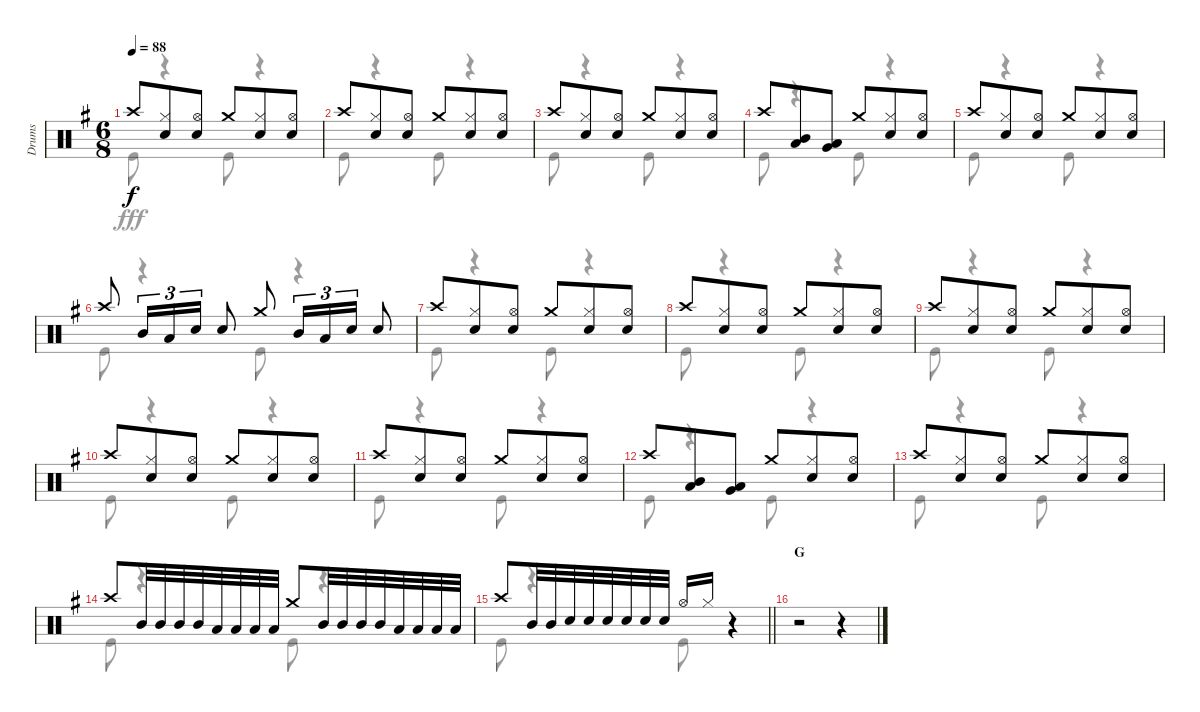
\track ("Drums" "Drums") {instrument percussion}
\staff {score}
\articulation defaults
\voice
\ts (6 8)
\tempo 88
\clef neutral
\ks g "Crash high (hit)".8{dy f}
("Hi-Hat (closed)" "Snare (hit) 2").8 ("Hi-Hat (open)" "Snare (hit) 2").8 "Crash medium (hit)".8 ("Hi-Hat (closed)" "Snare (hit) 2").8 ("Hi-Hat (open)" "Snare (hit) 2").8 |
"Crash high (hit)".8 ("Hi-Hat (closed)" "Snare (hit) 2").8 ("Hi-Hat (open)" "Snare (hit) 2").8 "Crash medium (hit)".8 ("Hi-Hat (closed)" "Snare (hit) 2").8 ("Hi-Hat (open)" "Snare (hit) 2").8 |
"Crash high (hit)".8 ("Hi-Hat (closed)" "Snare (hit) 2").8 ("Hi-Hat (open)" "Snare (hit) 2").8 "Crash medium (hit)".8 ("Hi-Hat (closed)" "Snare (hit) 2").8 ("Hi-Hat (open)" "Snare (hit) 2").8 |
"Crash high (hit)".8 ("Mid Tom (hit)" "Low Tom (hit)").8 ("Low Tom (hit)" "Very Low Tom (hit)").8 "Crash medium (hit)".8 ("Hi-Hat (closed)" "Snare (hit) 2").8 ("Hi-Hat (open)" "Snare (hit) 2").8 |
"Crash high (hit)".8 ("Hi-Hat (closed)" "Snare (hit) 2").8 ("Hi-Hat (open)" "Snare (hit) 2").8 "Crash medium (hit)".8 ("Hi-Hat (closed)" "Snare (hit) 2").8 ("Hi-Hat (open)" "Snare (hit) 2").8 |
"Crash high (hit)".8 "Mid Tom (hit)".16{tu (3 2)} "Low Tom (hit)".16{tu (3 2)} "Snare (hit) 2".16{tu (3 2)} "Snare (hit) 2".8 "Crash medium (hit)".8 "Mid Tom (hit)".16{tu (3 2)} "Low Tom (hit)".16{tu (3 2)} "Snare (hit) 2".16{tu (3 2)} "Snare (hit) 2".8 |
"Crash high (hit)".8 ("Hi-Hat (closed)" "Snare (hit) 2").8 ("Hi-Hat (open)" "Snare (hit) 2").8 "Crash medium (hit)".8 ("Hi-Hat (closed)" "Snare (hit) 2").8 ("Hi-Hat (open)" "Snare (hit) 2").8 |
"Crash high (hit)".8 ("Hi-Hat (closed)" "Snare (hit) 2").8 ("Hi-Hat (open)" "Snare (hit) 2").8 "Crash medium (hit)".8 ("Hi-Hat (closed)" "Snare (hit) 2").8 ("Hi-Hat (open)" "Snare (hit) 2").8 |
"Crash high (hit)".8 ("Hi-Hat (closed)" "Snare (hit) 2").8 ("Hi-Hat (open)" "Snare (hit) 2").8 "Crash medium (hit)".8 ("Hi-Hat (closed)" "Snare (hit) 2").8 ("Hi-Hat (open)" "Snare (hit) 2").8 |
"Crash high (hit)".8 ("Hi-Hat (closed)" "Snare (hit) 2").8 ("Hi-Hat (open)" "Snare (hit) 2").8 "Crash medium (hit)".8 ("Hi-Hat (closed)" "Snare (hit) 2").8 ("Hi-Hat (open)" "Snare (hit) 2").8 |
"Crash high (hit)".8 ("Hi-Hat (closed)" "Snare (hit) 2").8 ("Hi-Hat (open)" "Snare (hit) 2").8 "Crash medium (hit)".8 ("Hi-Hat (closed)" "Snare (hit) 2").8 ("Hi-Hat (open)" "Snare (hit) 2").8 |
"Crash high (hit)".8 ("Mid Tom (hit)" "Low Tom (hit)").8 ("Low Tom (hit)" "Very Low Tom (hit)").8 "Crash medium (hit)".8 ("Hi-Hat (closed)" "Snare (hit) 2").8 ("Hi-Hat (open)" "Snare (hit) 2").8 |
"Crash high (hit)".8 ("Hi-Hat (closed)" "Snare (hit) 2").8 ("Hi-Hat (open)" "Snare (hit) 2").8 "Crash medium (hit)".8 ("Hi-Hat (closed)" "Snare (hit) 2").8 ("Hi-Hat (open)" "Snare (hit) 2").8 |
"Crash high (hit)".8 "Mid Tom (hit)".32 "Mid Tom (hit)".32 "Mid Tom (hit)".32 "Mid Tom (hit)".32 "Low Tom (hit)".32 "Low Tom (hit)".32 "Low Tom (hit)".32 "Low Tom (hit)".32 "Crash medium (hit)".8 "Mid Tom (hit)".32 "Mid Tom (hit)".32 "Mid Tom (hit)".32 "Mid Tom (hit)".32 "Low Tom (hit)".32 "Low Tom (hit)".32 "Low Tom (hit)".32 "Low Tom (hit)".32 |
\barLineRight lightlight "Crash high (hit)".8 "Mid Tom (hit)".32 "Mid Tom (hit)".32 "Snare (hit) 2".32 "Snare (hit) 2".32 "Snare (hit) 2".32 "Snare (hit) 2".32 "Snare (hit) 2".32 "Snare (hit) 2".32 "Hi-Hat (open)".16 "Hi-Hat (closed)".16
r.4 |
\section ("" "G")
r.2 r.4
\voice
\clef neutral
\ottava regular
\simile none
\ks g "Kick (hit)".8{dy fff}
r.4 "Kick (hit)".8 r.4 |
"Kick (hit)".8 r.4 "Kick (hit)".8 r.4 |
"Kick (hit)".8 r.4 "Kick (hit)".8 r.4 |
"Kick (hit)".8 r.4 "Kick (hit)".8 r.4 |
"Kick (hit)".8 r.4 "Kick (hit)".8 r.4 |
"Kick (hit)".8 r.4 "Kick (hit)".8 r.4 |
"Kick (hit)".8 r.4 "Kick (hit)".8 r.4 |
"Kick (hit)".8 r.4 "Kick (hit)".8 r.4 |
"Kick (hit)".8 r.4 "Kick (hit)".8 r.4 |
"Kick (hit)".8 r.4 "Kick (hit)".8 r.4 |
"Kick (hit)".8 r.4 "Kick (hit)".8 r.4 |
"Kick (hit)".8 r.4 "Kick (hit)".8 r.4 |
"Kick (hit)".8 r.4 "Kick (hit)".8 r.4 |
"Kick (hit)".8 r.4 "Kick (hit)".8 r.4 |
\barLineRight lightlight "Kick (hit)".8
r.4 "Kick (hit)".8 r.4 |
r.2 r.4
